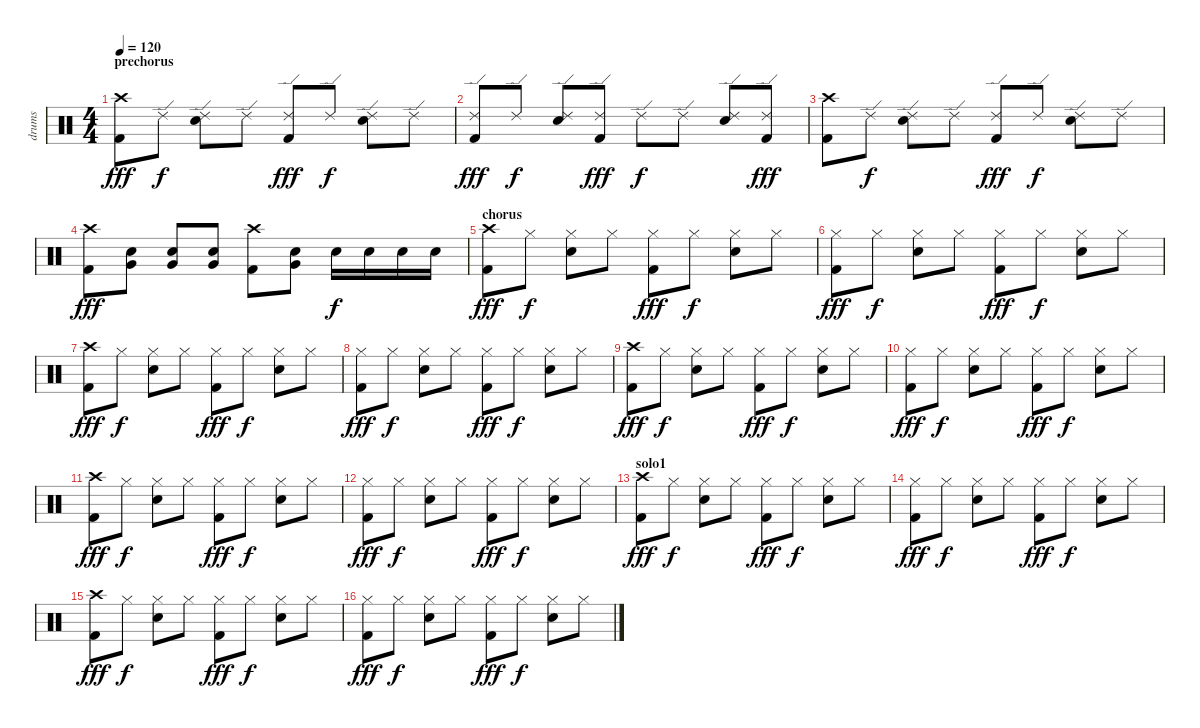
\track ("drums" "drums") {instrument percussion}
\staff {score}
\articulation defaults
\ts (4 4)
\section ("" "prechorus")
\tempo 120
\clef neutral
\ks c
("Crash high (hit)" "Kick (hit) 2").8{dy fff} "Ride (edge) 2".8{dy f} ("Ride (edge) 2" "Snare (hit) 2").8 "Ride (edge) 2".8 ("Ride (edge) 2" "Kick (hit) 2").8{dy fff} "Ride (edge) 2".8{dy f} ("Ride (edge) 2" "Snare (hit) 2").8 "Ride (edge) 2".8 |
("Ride (edge) 2" "Kick (hit) 2").8{dy fff} "Ride (edge) 2".8{dy f} ("Ride (edge) 2" "Snare (hit) 2").8 ("Ride (edge) 2" "Kick (hit) 2").8{dy fff} "Ride (edge) 2".8{dy f} "Ride (edge) 2".8 ("Ride (edge) 2" "Snare (hit) 2").8 ("Ride (edge) 2" "Kick (hit) 2").8{dy fff} |
("Crash high (hit)" "Kick (hit) 2").8 "Ride (edge) 2".8{dy f} ("Ride (edge) 2" "Snare (hit) 2").8 "Ride (edge) 2".8 ("Ride (edge) 2" "Kick (hit) 2").8{dy fff} "Ride (edge) 2".8{dy f} ("Ride (edge) 2" "Snare (hit) 2").8 "Ride (edge) 2".8 |
("Crash high (hit)" "Kick (hit) 2").8{dy fff} ("Very Low Tom (hit)" "Snare (hit) 2").8 ("Very Low Tom (hit)" "Snare (hit) 2").8 ("Very Low Tom (hit)" "Snare (hit) 2").8 ("Crash high (hit)" "Kick (hit) 2").8 ("Very Low Tom (hit)" "Snare (hit) 2").8 "Snare (hit) 2".16{dy f} "Snare (hit) 2".16 "Snare (hit) 2".16 "Snare (hit) 2".16 |
\section ("" "chorus")
("Crash high (hit)" "Kick (hit) 2").8{dy fff} "Hi-Hat (closed)".8{dy f} ("Hi-Hat (closed)" "Snare (hit) 2").8 "Hi-Hat (closed)".8 ("Hi-Hat (closed)" "Kick (hit) 2").8{dy fff} "Hi-Hat (closed)".8{dy f} ("Hi-Hat (closed)" "Snare (hit) 2").8 "Hi-Hat (closed)".8 |
("Hi-Hat (closed)" "Kick (hit) 2").8{dy fff} "Hi-Hat (closed)".8{dy f} ("Hi-Hat (closed)" "Snare (hit) 2").8 "Hi-Hat (closed)".8 ("Hi-Hat (closed)" "Kick (hit) 2").8{dy fff} "Hi-Hat (closed)".8{dy f} ("Hi-Hat (closed)" "Snare (hit) 2").8 "Hi-Hat (closed)".8 |
("Crash high (hit)" "Kick (hit) 2").8{dy fff} "Hi-Hat (closed)".8{dy f} ("Hi-Hat (closed)" "Snare (hit) 2").8 "Hi-Hat (closed)".8 ("Hi-Hat (closed)" "Kick (hit) 2").8{dy fff} "Hi-Hat (closed)".8{dy f} ("Hi-Hat (closed)" "Snare (hit) 2").8 "Hi-Hat (closed)".8 |
("Hi-Hat (closed)" "Kick (hit) 2").8{dy fff} "Hi-Hat (closed)".8{dy f} ("Hi-Hat (closed)" "Snare (hit) 2").8 "Hi-Hat (closed)".8 ("Hi-Hat (closed)" "Kick (hit) 2").8{dy fff} "Hi-Hat (closed)".8{dy f} ("Hi-Hat (closed)" "Snare (hit) 2").8 "Hi-Hat (closed)".8 |
("Crash high (hit)" "Kick (hit) 2").8{dy fff} "Hi-Hat (closed)".8{dy f} ("Hi-Hat (closed)" "Snare (hit) 2").8 "Hi-Hat (closed)".8 ("Hi-Hat (closed)" "Kick (hit) 2").8{dy fff} "Hi-Hat (closed)".8{dy f} ("Hi-Hat (closed)" "Snare (hit) 2").8 "Hi-Hat (closed)".8 |
("Hi-Hat (closed)" "Kick (hit) 2").8{dy fff} "Hi-Hat (closed)".8{dy f} ("Hi-Hat (closed)" "Snare (hit) 2").8 "Hi-Hat (closed)".8 ("Hi-Hat (closed)" "Kick (hit) 2").8{dy fff} "Hi-Hat (closed)".8{dy f} ("Hi-Hat (closed)" "Snare (hit) 2").8 "Hi-Hat (closed)".8 |
("Crash high (hit)" "Kick (hit) 2").8{dy fff} "Hi-Hat (closed)".8{dy f} ("Hi-Hat (closed)" "Snare (hit) 2").8 "Hi-Hat (closed)".8 ("Hi-Hat (closed)" "Kick (hit) 2").8{dy fff} "Hi-Hat (closed)".8{dy f} ("Hi-Hat (closed)" "Snare (hit) 2").8 "Hi-Hat (closed)".8 |
("Hi-Hat (closed)" "Kick (hit) 2").8{dy fff} "Hi-Hat (closed)".8{dy f} ("Hi-Hat (closed)" "Snare (hit) 2").8 "Hi-Hat (closed)".8 ("Hi-Hat (closed)" "Kick (hit) 2").8{dy fff} "Hi-Hat (closed)".8{dy f} ("Hi-Hat (closed)" "Snare (hit) 2").8 "Hi-Hat (closed)".8 |
\section ("" "solo1")
("Crash high (hit)" "Kick (hit) 2").8{dy fff} "Hi-Hat (closed)".8{dy f} ("Hi-Hat (closed)" "Snare (hit) 2").8 "Hi-Hat (closed)".8 ("Hi-Hat (closed)" "Kick (hit) 2").8{dy fff} "Hi-Hat (closed)".8{dy f} ("Hi-Hat (closed)" "Snare (hit) 2").8 "Hi-Hat (closed)".8 |
("Hi-Hat (closed)" "Kick (hit) 2").8{dy fff} "Hi-Hat (closed)".8{dy f} ("Hi-Hat (closed)" "Snare (hit) 2").8 "Hi-Hat (closed)".8 ("Hi-Hat (closed)" "Kick (hit) 2").8{dy fff} "Hi-Hat (closed)".8{dy f} ("Hi-Hat (closed)" "Snare (hit) 2").8 "Hi-Hat (closed)".8 |
("Crash high (hit)" "Kick (hit) 2").8{dy fff} "Hi-Hat (closed)".8{dy f} ("Hi-Hat (closed)" "Snare (hit) 2").8 "Hi-Hat (closed)".8 ("Hi-Hat (closed)" "Kick (hit) 2").8{dy fff} "Hi-Hat (closed)".8{dy f} ("Hi-Hat (closed)" "Snare (hit) 2").8 "Hi-Hat (closed)".8 |
("Hi-Hat (closed)" "Kick (hit) 2").8{dy fff} "Hi-Hat (closed)".8{dy f} ("Hi-Hat (closed)" "Snare (hit) 2").8 "Hi-Hat (closed)".8 ("Hi-Hat (closed)" "Kick (hit) 2").8{dy fff} "Hi-Hat (closed)".8{dy f} ("Hi-Hat (closed)" "Snare (hit) 2").8 "Hi-Hat (closed)".8
